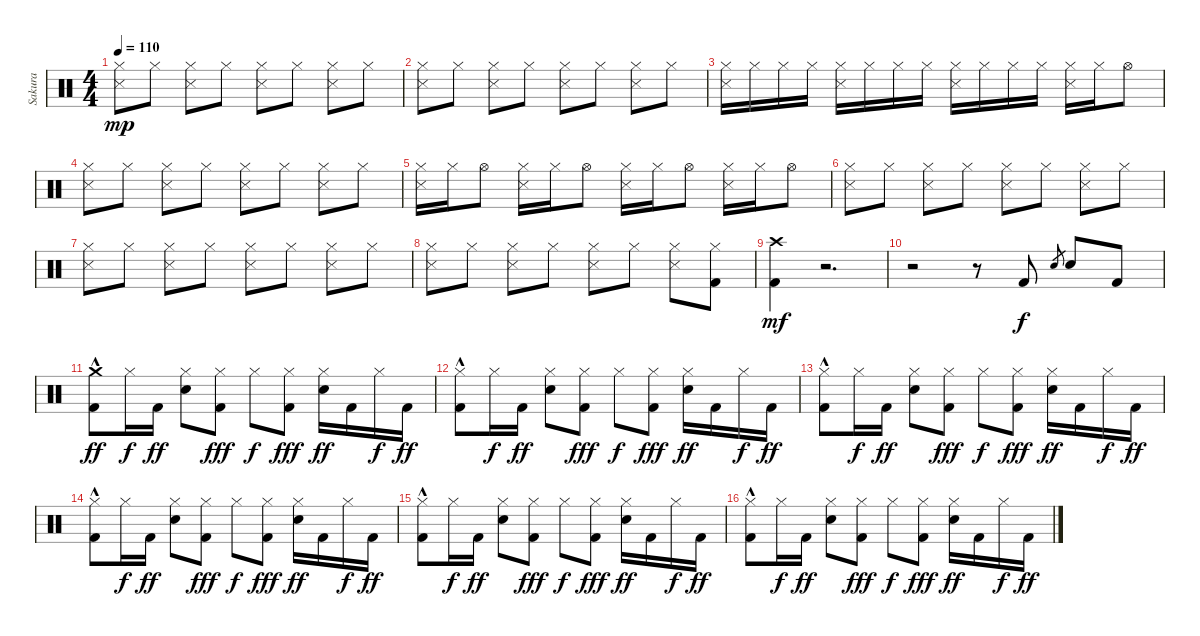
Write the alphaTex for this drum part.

\track ("Sakura" "Sakura") {instrument percussion}
\staff {score}
\articulation defaults
\ts (4 4)
\tempo 110
\clef neutral
\ks c
("Hi-Hat (closed)" "Snare (side stick) 3").8{dy mp} "Hi-Hat (closed)".8 ("Hi-Hat (closed)" "Snare (side stick) 3").8 "Hi-Hat (closed)".8 ("Hi-Hat (closed)" "Snare (side stick) 3").8 "Hi-Hat (closed)".8 ("Hi-Hat (closed)" "Snare (side stick) 3").8 "Hi-Hat (closed)".8 |
("Hi-Hat (closed)" "Snare (side stick) 3").8 "Hi-Hat (closed)".8 ("Hi-Hat (closed)" "Snare (side stick) 3").8 "Hi-Hat (closed)".8 ("Hi-Hat (closed)" "Snare (side stick) 3").8 "Hi-Hat (closed)".8 ("Hi-Hat (closed)" "Snare (side stick) 3").8 "Hi-Hat (closed)".8 |
("Hi-Hat (closed)" "Snare (side stick) 3").16 "Hi-Hat (closed)".16 "Hi-Hat (closed)".16 "Hi-Hat (closed)".16 ("Hi-Hat (closed)" "Snare (side stick) 3").16 "Hi-Hat (closed)".16 "Hi-Hat (closed)".16 "Hi-Hat (closed)".16 ("Hi-Hat (closed)" "Snare (side stick) 3").16 "Hi-Hat (closed)".16 "Hi-Hat (closed)".16 "Hi-Hat (closed)".16 ("Hi-Hat (closed)" "Snare (side stick) 3").16 "Hi-Hat (closed)".16 "Hi-Hat (open)".8 |
("Hi-Hat (closed)" "Snare (side stick) 3").8 "Hi-Hat (closed)".8 ("Hi-Hat (closed)" "Snare (side stick) 3").8 "Hi-Hat (closed)".8 ("Hi-Hat (closed)" "Snare (side stick) 3").8 "Hi-Hat (closed)".8 ("Hi-Hat (closed)" "Snare (side stick) 3").8 "Hi-Hat (closed)".8 |
("Hi-Hat (closed)" "Snare (side stick) 3").16 "Hi-Hat (closed)".16 "Hi-Hat (open)".8 ("Hi-Hat (closed)" "Snare (side stick) 3").16 "Hi-Hat (closed)".16 "Hi-Hat (open)".8 ("Hi-Hat (closed)" "Snare (side stick) 3").16 "Hi-Hat (closed)".16 "Hi-Hat (open)".8 ("Hi-Hat (closed)" "Snare (side stick) 3").16 "Hi-Hat (closed)".16 "Hi-Hat (open)".8 |
("Hi-Hat (closed)" "Snare (side stick) 3").8 "Hi-Hat (closed)".8 ("Hi-Hat (closed)" "Snare (side stick) 3").8 "Hi-Hat (closed)".8 ("Hi-Hat (closed)" "Snare (side stick) 3").8 "Hi-Hat (closed)".8 ("Hi-Hat (closed)" "Snare (side stick) 3").8 "Hi-Hat (closed)".8 |
("Hi-Hat (closed)" "Snare (side stick) 3").8 "Hi-Hat (closed)".8 ("Hi-Hat (closed)" "Snare (side stick) 3").8 "Hi-Hat (closed)".8 ("Hi-Hat (closed)" "Snare (side stick) 3").8 "Hi-Hat (closed)".8 ("Hi-Hat (closed)" "Snare (side stick) 3").8 "Hi-Hat (closed)".8 |
("Hi-Hat (closed)" "Snare (side stick) 3").8 "Hi-Hat (closed)".8 ("Hi-Hat (closed)" "Snare (side stick) 3").8 "Hi-Hat (closed)".8 ("Hi-Hat (closed)" "Snare (side stick) 3").8 "Hi-Hat (closed)".8 ("Hi-Hat (closed)" "Snare (side stick) 3").8 ("Hi-Hat (closed)" "Kick (hit) 2").8 |
("Crash high (hit)" "Kick (hit) 2").4{dy mf} r.2{d} |
r.2 r.8 "Kick (hit) 2".8{dy f} "Snare (hit) 2".8{gr} "Snare (hit) 2".8 "Kick (hit) 2".8 |
("Kick (hit) 2"{hac} "Crash medium (hit)").8{dy ff volume 15 balance 8} "Hi-Hat (closed)".16{dy f} "Kick (hit) 2".16{dy ff} ("Snare (hit) 2" "Hi-Hat (closed)").8 ("Kick (hit) 2" "Hi-Hat (closed)").8{dy fff} "Hi-Hat (closed)".8{dy f} ("Kick (hit) 2" "Hi-Hat (closed)").8{dy fff} ("Snare (hit) 2" "Hi-Hat (closed)").16{dy ff} "Kick (hit) 2".16 "Hi-Hat (closed)".16{dy f} "Kick (hit) 2".16{dy ff} |
("Kick (hit) 2"{hac} "Hi-Hat (closed)").8 "Hi-Hat (closed)".16{dy f} "Kick (hit) 2".16{dy ff} ("Snare (hit) 2" "Hi-Hat (closed)").8 ("Kick (hit) 2" "Hi-Hat (closed)").8{dy fff} "Hi-Hat (closed)".8{dy f} ("Kick (hit) 2" "Hi-Hat (closed)").8{dy fff} ("Snare (hit) 2" "Hi-Hat (closed)").16{dy ff} "Kick (hit) 2".16 "Hi-Hat (closed)".16{dy f} "Kick (hit) 2".16{dy ff} |
("Kick (hit) 2"{hac} "Hi-Hat (closed)").8 "Hi-Hat (closed)".16{dy f} "Kick (hit) 2".16{dy ff} ("Snare (hit) 2" "Hi-Hat (closed)").8 ("Kick (hit) 2" "Hi-Hat (closed)").8{dy fff} "Hi-Hat (closed)".8{dy f} ("Kick (hit) 2" "Hi-Hat (closed)").8{dy fff} ("Snare (hit) 2" "Hi-Hat (closed)").16{dy ff} "Kick (hit) 2".16 "Hi-Hat (closed)".16{dy f} "Kick (hit) 2".16{dy ff} |
("Kick (hit) 2"{hac} "Hi-Hat (closed)").8 "Hi-Hat (closed)".16{dy f} "Kick (hit) 2".16{dy ff} ("Snare (hit) 2" "Hi-Hat (closed)").8 ("Kick (hit) 2" "Hi-Hat (closed)").8{dy fff} "Hi-Hat (closed)".8{dy f} ("Kick (hit) 2" "Hi-Hat (closed)").8{dy fff} ("Snare (hit) 2" "Hi-Hat (closed)").16{dy ff} "Kick (hit) 2".16 "Hi-Hat (closed)".16{dy f} "Kick (hit) 2".16{dy ff} |
("Kick (hit) 2"{hac} "Hi-Hat (closed)").8 "Hi-Hat (closed)".16{dy f} "Kick (hit) 2".16{dy ff} ("Snare (hit) 2" "Hi-Hat (closed)").8 ("Kick (hit) 2" "Hi-Hat (closed)").8{dy fff} "Hi-Hat (closed)".8{dy f} ("Kick (hit) 2" "Hi-Hat (closed)").8{dy fff} ("Snare (hit) 2" "Hi-Hat (closed)").16{dy ff} "Kick (hit) 2".16 "Hi-Hat (closed)".16{dy f} "Kick (hit) 2".16{dy ff} |
("Kick (hit) 2"{hac} "Hi-Hat (closed)").8 "Hi-Hat (closed)".16{dy f} "Kick (hit) 2".16{dy ff} ("Snare (hit) 2" "Hi-Hat (closed)").8 ("Kick (hit) 2" "Hi-Hat (closed)").8{dy fff} "Hi-Hat (closed)".8{dy f} ("Kick (hit) 2" "Hi-Hat (closed)").8{dy fff} ("Snare (hit) 2" "Hi-Hat (closed)").16{dy ff} "Kick (hit) 2".16 "Hi-Hat (closed)".16{dy f} "Kick (hit) 2".16{dy ff}
